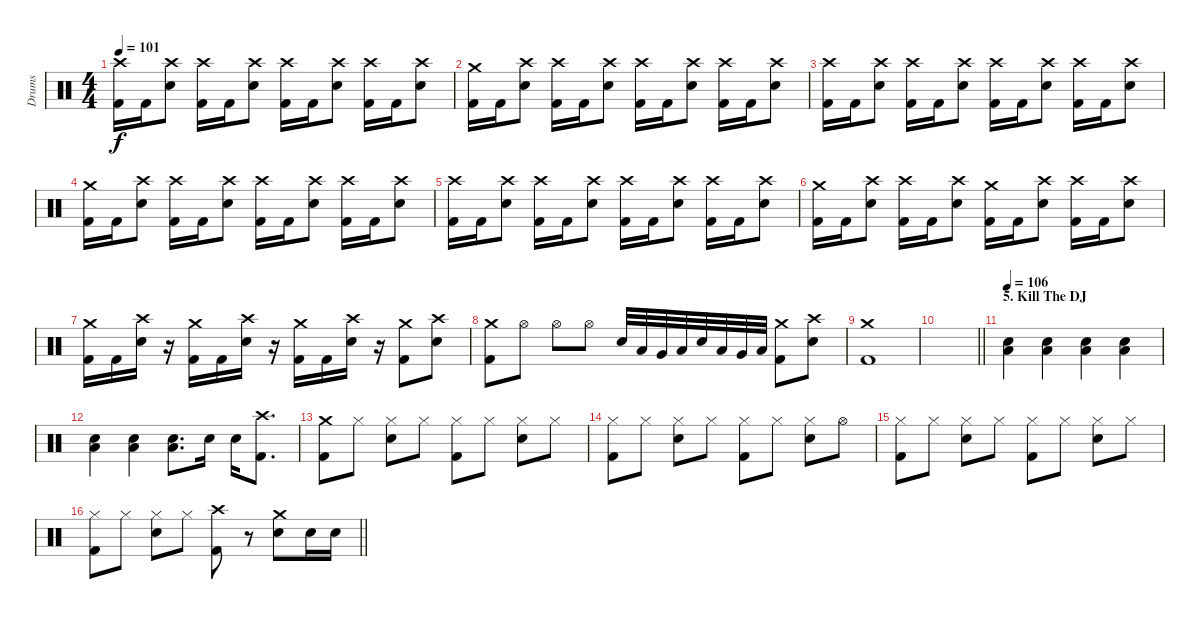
\track ("Drums" "Drums") {instrument percussion}
\staff {score}
\articulation defaults
\ts (4 4)
\tempo 101
\clef neutral
\ks c
("Crash high (hit)" "Kick (hit) 2").16{dy f} "Kick (hit) 2".16 ("Crash high (hit)" "Electric Snare (hit)").8 ("Crash high (hit)" "Kick (hit) 2").16 "Kick (hit) 2".16 ("Crash high (hit)" "Electric Snare (hit)").8 ("Crash high (hit)" "Kick (hit) 2").16 "Kick (hit) 2".16 ("Crash high (hit)" "Electric Snare (hit)").8 ("Crash high (hit)" "Kick (hit) 2").16 "Kick (hit) 2".16 ("Crash high (hit)" "Electric Snare (hit)").8 |
("Crash medium (hit)" "Kick (hit) 2").16 "Kick (hit) 2".16 ("Crash high (hit)" "Electric Snare (hit)").8 ("Crash high (hit)" "Kick (hit) 2").16 "Kick (hit) 2".16 ("Crash high (hit)" "Electric Snare (hit)").8 ("Crash high (hit)" "Kick (hit) 2").16 "Kick (hit) 2".16 ("Crash high (hit)" "Electric Snare (hit)").8 ("Crash high (hit)" "Kick (hit) 2").16 "Kick (hit) 2".16 ("Crash high (hit)" "Electric Snare (hit)").8 |
("Crash high (hit)" "Kick (hit) 2").16 "Kick (hit) 2".16 ("Crash high (hit)" "Electric Snare (hit)").8 ("Crash high (hit)" "Kick (hit) 2").16 "Kick (hit) 2".16 ("Crash high (hit)" "Electric Snare (hit)").8 ("Crash high (hit)" "Kick (hit) 2").16 "Kick (hit) 2".16 ("Crash high (hit)" "Electric Snare (hit)").8 ("Crash high (hit)" "Kick (hit) 2").16 "Kick (hit) 2".16 ("Crash high (hit)" "Electric Snare (hit)").8 |
("Crash medium (hit)" "Kick (hit) 2").16 "Kick (hit) 2".16 ("Crash high (hit)" "Electric Snare (hit)").8 ("Crash high (hit)" "Kick (hit) 2").16 "Kick (hit) 2".16 ("Crash high (hit)" "Electric Snare (hit)").8 ("Crash high (hit)" "Kick (hit) 2").16 "Kick (hit) 2".16 ("Crash high (hit)" "Electric Snare (hit)").8 ("Crash high (hit)" "Kick (hit) 2").16 "Kick (hit) 2".16 ("Crash high (hit)" "Electric Snare (hit)").8 |
("Crash high (hit)" "Kick (hit) 2").16 "Kick (hit) 2".16 ("Crash high (hit)" "Electric Snare (hit)").8 ("Crash high (hit)" "Kick (hit) 2").16 "Kick (hit) 2".16 ("Crash high (hit)" "Electric Snare (hit)").8 ("Crash high (hit)" "Kick (hit) 2").16 "Kick (hit) 2".16 ("Crash high (hit)" "Electric Snare (hit)").8 ("Crash high (hit)" "Kick (hit) 2").16 "Kick (hit) 2".16 ("Crash high (hit)" "Electric Snare (hit)").8 |
("Crash medium (hit)" "Kick (hit) 2").16 "Kick (hit) 2".16 ("Crash high (hit)" "Electric Snare (hit)").8 ("Crash high (hit)" "Kick (hit) 2").16 "Kick (hit) 2".16 ("Crash high (hit)" "Electric Snare (hit)").8 ("Crash medium (hit)" "Kick (hit) 2").16 "Kick (hit) 2".16 ("Crash high (hit)" "Electric Snare (hit)").8 ("Crash high (hit)" "Kick (hit) 2").16 "Kick (hit) 2".16 ("Crash high (hit)" "Electric Snare (hit)").8 |
("Crash medium (hit)" "Kick (hit) 2").16 "Kick (hit) 2".16 ("Crash high (hit)" "Electric Snare (hit)").16 r.16 ("Crash medium (hit)" "Kick (hit) 2").16 "Kick (hit) 2".16 ("Crash high (hit)" "Electric Snare (hit)").16 r.16 ("Crash medium (hit)" "Kick (hit) 2").16 "Kick (hit) 2".16 ("Crash high (hit)" "Electric Snare (hit)").16 r.16 ("Crash medium (hit)" "Kick (hit) 2").8 ("Crash high (hit)" "Electric Snare (hit)").8 |
("Crash medium (hit)" "Kick (hit) 2").8 "Hi-Hat (open)".8 "Hi-Hat (open)".8 "Hi-Hat (open)".8 "Electric Snare (hit)".32 "Low Floor Tom (hit)".32 "Very Low Tom (hit)".32 "Low Floor Tom (hit)".32 "Electric Snare (hit)".32 "Low Floor Tom (hit)".32 "Very Low Tom (hit)".32 "Low Floor Tom (hit)".32 ("Crash medium (hit)" "Kick (hit) 2").8 ("Crash high (hit)" "Electric Snare (hit)").8 |
("Crash medium (hit)" "Kick (hit) 2").1 |
\barLineRight lightlight
|
\section ("" "5. Kill The DJ")
\tempo 106
("Electric Snare (hit)" "Low Floor Tom (hit)").4 ("Electric Snare (hit)" "Low Floor Tom (hit)").4 ("Electric Snare (hit)" "Low Floor Tom (hit)").4 ("Electric Snare (hit)" "Low Floor Tom (hit)").4 |
("Electric Snare (hit)" "Low Floor Tom (hit)").4 ("Electric Snare (hit)" "Low Floor Tom (hit)").4 ("Electric Snare (hit)" "Low Floor Tom (hit)").8{d} "Electric Snare (hit)".16 "Electric Snare (hit)".16 ("Crash high (hit)" "Kick (hit) 2").8{d} |
("Crash medium (hit)" "Kick (hit) 2").8 "Hi-Hat (closed)".8 ("Hi-Hat (closed)" "Electric Snare (hit)").8 "Hi-Hat (closed)".8 ("Hi-Hat (closed)" "Kick (hit) 2").8 "Hi-Hat (closed)".8 ("Hi-Hat (closed)" "Electric Snare (hit)").8 "Hi-Hat (closed)".8 |
("Hi-Hat (closed)" "Kick (hit) 2").8 "Hi-Hat (closed)".8 ("Hi-Hat (closed)" "Electric Snare (hit)").8 "Hi-Hat (closed)".8 ("Hi-Hat (closed)" "Kick (hit) 2").8 "Hi-Hat (closed)".8 ("Hi-Hat (closed)" "Electric Snare (hit)").8 "Hi-Hat (open)".8 |
("Hi-Hat (closed)" "Kick (hit) 2").8 "Hi-Hat (closed)".8 ("Hi-Hat (closed)" "Electric Snare (hit)").8 "Hi-Hat (closed)".8 ("Hi-Hat (closed)" "Kick (hit) 2").8 "Hi-Hat (closed)".8 ("Hi-Hat (closed)" "Electric Snare (hit)").8 "Hi-Hat (closed)".8 |
\barLineRight lightlight
("Hi-Hat (closed)" "Kick (hit) 2").8 "Hi-Hat (closed)".8 ("Hi-Hat (closed)" "Electric Snare (hit)").8 "Hi-Hat (closed)".8 ("Crash high (hit)" "Kick (hit) 2").8 r.8 ("Crash medium (hit)" "Electric Snare (hit)").8 "Electric Snare (hit)".16 "Electric Snare (hit)".16
